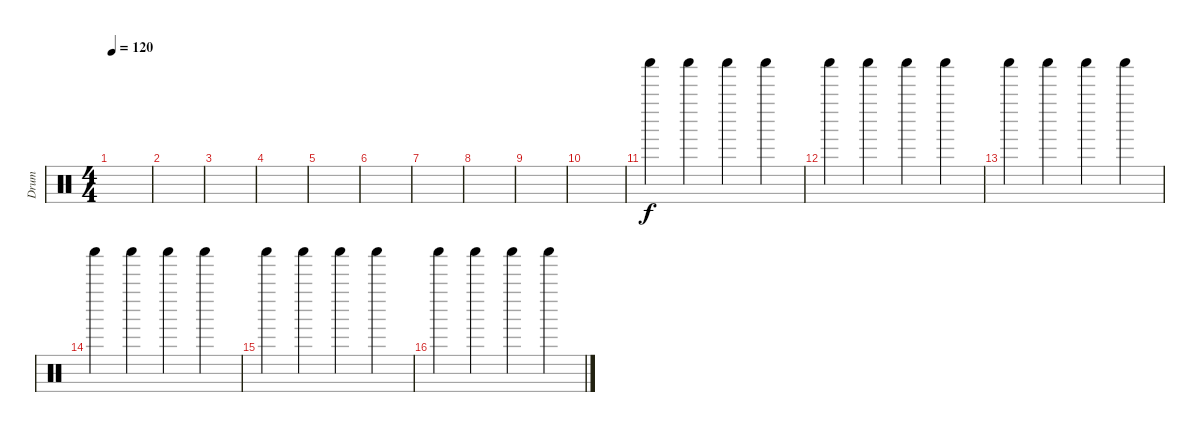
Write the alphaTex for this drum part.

\track ("Drum" "Drum") {instrument percussion}
\staff {score}
\articulation defaults
\ts (4 4)
\tempo 120
\clef neutral
\ks c
|
|
|
|
|
|
|
|
|
|
"Shaker (hit)".4 "Shaker (hit)".4 "Shaker (hit)".4 "Shaker (hit)".4 |
"Shaker (hit)".4 "Shaker (hit)".4 "Shaker (hit)".4 "Shaker (hit)".4 |
"Shaker (hit)".4 "Shaker (hit)".4 "Shaker (hit)".4 "Shaker (hit)".4 |
"Shaker (hit)".4 "Shaker (hit)".4 "Shaker (hit)".4 "Shaker (hit)".4 |
"Shaker (hit)".4 "Shaker (hit)".4 "Shaker (hit)".4 "Shaker (hit)".4 |
"Shaker (hit)".4 "Shaker (hit)".4 "Shaker (hit)".4 "Shaker (hit)".4
